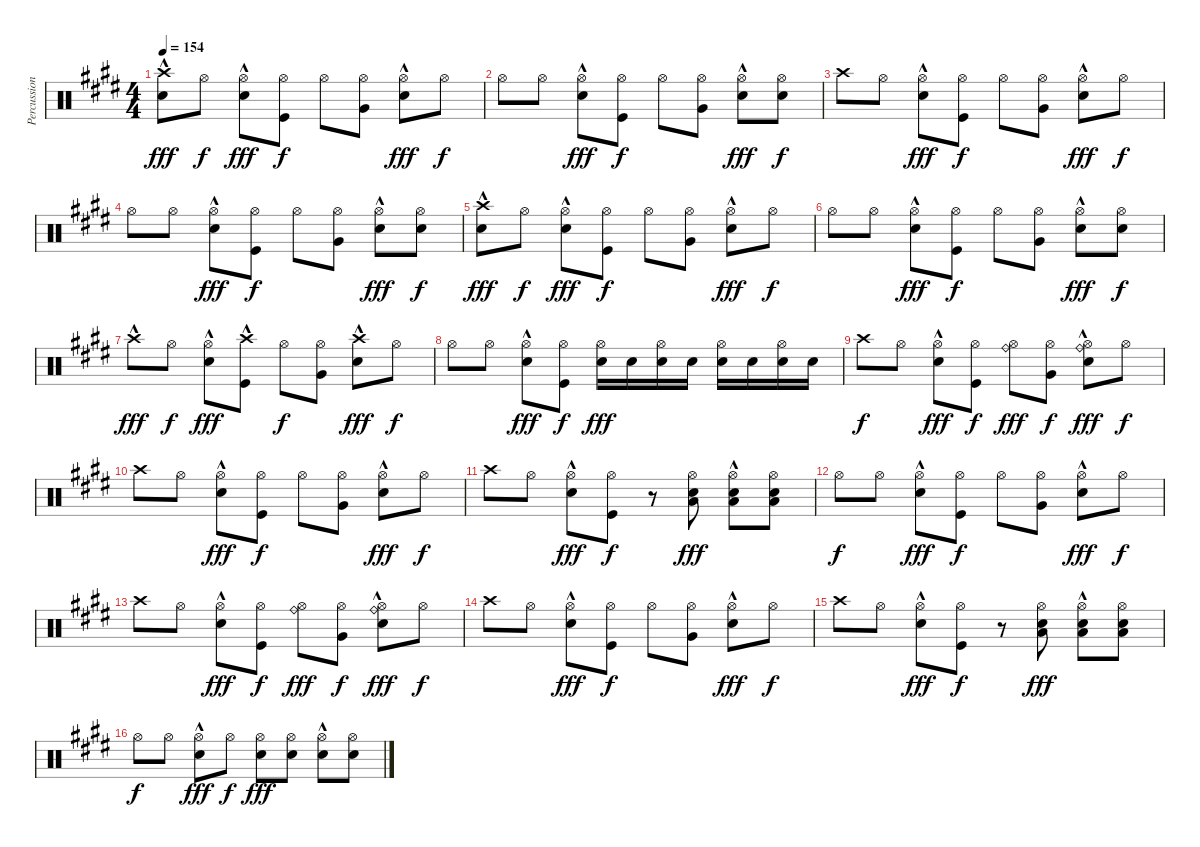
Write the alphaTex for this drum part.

\track ("Percussion (Derek Grant)" "Percussion") {instrument percussion}
\staff {score}
\articulation defaults
\ts (4 4)
\tempo 154
\clef neutral
\ks c#minor
("Crash high (hit)"{hac} "Electric Snare (hit)").8{dy fff} "Hi-Hat (open)".8{dy f} ("Hi-Hat (open)" "Snare (hit) 2"{hac}).8{dy fff} ("Hi-Hat (open)" "Kick (hit)").8{dy f} "Hi-Hat (open)".8 ("Hi-Hat (open)" "Very Low Tom (hit)").8 ("Hi-Hat (open)" "Snare (hit) 2"{hac}).8{dy fff} "Hi-Hat (open)".8{dy f} |
"Hi-Hat (open)".8 "Hi-Hat (open)".8 ("Hi-Hat (open)" "Snare (hit) 2"{hac}).8{dy fff} ("Hi-Hat (open)" "Kick (hit)").8{dy f} "Hi-Hat (open)".8 ("Hi-Hat (open)" "Very Low Tom (hit)").8 ("Hi-Hat (open)" "Snare (hit) 2"{hac}).8{dy fff} ("Hi-Hat (open)" "Electric Snare (hit)").8{dy f} |
"Crash high (hit)".8 "Hi-Hat (open)".8 ("Hi-Hat (open)" "Snare (hit) 2"{hac}).8{dy fff} ("Hi-Hat (open)" "Kick (hit)").8{dy f} "Hi-Hat (open)".8 ("Hi-Hat (open)" "Very Low Tom (hit)").8 ("Hi-Hat (open)" "Snare (hit) 2"{hac}).8{dy fff} "Hi-Hat (open)".8{dy f} |
"Hi-Hat (open)".8 "Hi-Hat (open)".8 ("Hi-Hat (open)" "Snare (hit) 2"{hac}).8{dy fff} ("Hi-Hat (open)" "Kick (hit)").8{dy f} "Hi-Hat (open)".8 ("Hi-Hat (open)" "Very Low Tom (hit)").8 ("Hi-Hat (open)" "Snare (hit) 2"{hac}).8{dy fff} ("Hi-Hat (open)" "Electric Snare (hit)").8{dy f} |
("Crash high (hit)"{hac} "Electric Snare (hit)").8{dy fff} "Hi-Hat (open)".8{dy f} ("Hi-Hat (open)" "Snare (hit) 2"{hac}).8{dy fff} ("Hi-Hat (open)" "Kick (hit)").8{dy f} "Hi-Hat (open)".8 ("Hi-Hat (open)" "Very Low Tom (hit)").8 ("Hi-Hat (open)" "Snare (hit) 2"{hac}).8{dy fff} "Hi-Hat (open)".8{dy f} |
"Hi-Hat (open)".8 "Hi-Hat (open)".8 ("Hi-Hat (open)" "Snare (hit) 2"{hac}).8{dy fff} ("Hi-Hat (open)" "Kick (hit)").8{dy f} "Hi-Hat (open)".8 ("Hi-Hat (open)" "Very Low Tom (hit)").8 ("Hi-Hat (open)" "Snare (hit) 2"{hac}).8{dy fff} ("Hi-Hat (open)" "Electric Snare (hit)").8{dy f} |
"Crash high (hit)"{hac}.8{dy fff} "Hi-Hat (open)".8{dy f} ("Hi-Hat (open)" "Snare (hit) 2"{hac}).8{dy fff} ("Crash high (hit)"{hac} "Kick (hit)").8 "Hi-Hat (open)".8{dy f} ("Hi-Hat (open)" "Very Low Tom (hit)").8 ("Crash high (hit)"{hac} "Snare (hit) 2"{hac}).8{dy fff} "Hi-Hat (open)".8{dy f} |
"Hi-Hat (open)".8 "Hi-Hat (open)".8 ("Hi-Hat (open)" "Snare (hit) 2"{hac}).8{dy fff} ("Hi-Hat (open)" "Kick (hit)").8{dy f} ("Hi-Hat (open)" "Snare (hit) 2").16{dy fff} "Snare (hit) 2".16 ("Hi-Hat (open)" "Snare (hit) 2").16 "Snare (hit) 2".16 ("Hi-Hat (open)" "Snare (hit) 2").16 "Snare (hit) 2".16 ("Hi-Hat (open)" "Snare (hit) 2").16 "Snare (hit) 2".16 |
"Crash high (hit)".8{dy f} "Hi-Hat (open)".8 ("Hi-Hat (open)" "Snare (hit) 2"{hac}).8{dy fff} ("Hi-Hat (open)" "Kick (hit)").8{dy f} ("Ride (bell)" "Hi-Hat (open)").8{dy fff} ("Hi-Hat (open)" "Very Low Tom (hit)").8{dy f} ("Ride (bell)" "Hi-Hat (open)" "Snare (hit) 2"{hac}).8{dy fff} "Hi-Hat (open)".8{dy f} |
"Crash high (hit)".8 "Hi-Hat (open)".8 ("Hi-Hat (open)" "Snare (hit) 2"{hac}).8{dy fff} ("Hi-Hat (open)" "Kick (hit)").8{dy f} "Hi-Hat (open)".8 ("Hi-Hat (open)" "Very Low Tom (hit)").8 ("Hi-Hat (open)" "Snare (hit) 2"{hac}).8{dy fff} "Hi-Hat (open)".8{dy f} |
"Crash high (hit)".8 "Hi-Hat (open)".8 ("Hi-Hat (open)" "Snare (hit) 2"{hac}).8{dy fff} ("Hi-Hat (open)" "Kick (hit)").8{dy f} r.8 ("Hi-Hat (open)" "Electric Snare (hit)" "Low Floor Tom (hit)").8{dy fff} ("Hi-Hat (open)" "Snare (hit) 2"{hac} "Low Floor Tom (hit)").8 ("Hi-Hat (open)" "Electric Snare (hit)" "Low Floor Tom (hit)").8 |
"Hi-Hat (open)".8{dy f} "Hi-Hat (open)".8 ("Hi-Hat (open)" "Snare (hit) 2"{hac}).8{dy fff} ("Hi-Hat (open)" "Kick (hit)").8{dy f} "Hi-Hat (open)".8 ("Hi-Hat (open)" "Very Low Tom (hit)").8 ("Hi-Hat (open)" "Snare (hit) 2"{hac}).8{dy fff} "Hi-Hat (open)".8{dy f} |
"Crash high (hit)".8 "Hi-Hat (open)".8 ("Hi-Hat (open)" "Snare (hit) 2"{hac}).8{dy fff} ("Hi-Hat (open)" "Kick (hit)").8{dy f} ("Ride (bell)" "Hi-Hat (open)").8{dy fff} ("Hi-Hat (open)" "Very Low Tom (hit)").8{dy f} ("Ride (bell)" "Hi-Hat (open)" "Snare (hit) 2"{hac}).8{dy fff} "Hi-Hat (open)".8{dy f} |
"Crash high (hit)".8 "Hi-Hat (open)".8 ("Hi-Hat (open)" "Snare (hit) 2"{hac}).8{dy fff} ("Hi-Hat (open)" "Kick (hit)").8{dy f} "Hi-Hat (open)".8 ("Hi-Hat (open)" "Very Low Tom (hit)").8 ("Hi-Hat (open)" "Snare (hit) 2"{hac}).8{dy fff} "Hi-Hat (open)".8{dy f} |
"Crash high (hit)".8 "Hi-Hat (open)".8 ("Hi-Hat (open)" "Snare (hit) 2"{hac}).8{dy fff} ("Hi-Hat (open)" "Kick (hit)").8{dy f} r.8 ("Hi-Hat (open)" "Electric Snare (hit)" "Low Floor Tom (hit)").8{dy fff} ("Hi-Hat (open)" "Snare (hit) 2"{hac} "Low Floor Tom (hit)").8 ("Hi-Hat (open)" "Electric Snare (hit)" "Low Floor Tom (hit)").8 |
"Hi-Hat (open)".8{dy f} "Hi-Hat (open)".8 ("Hi-Hat (open)" "Snare (hit) 2"{hac}).8{dy fff} "Hi-Hat (open)".8{dy f} ("Hi-Hat (open)" "Electric Snare (hit)").8{dy fff} ("Hi-Hat (open)" "Electric Snare (hit)").8 ("Hi-Hat (open)" "Snare (hit) 2"{hac}).8 ("Hi-Hat (open)" "Electric Snare (hit)").8
